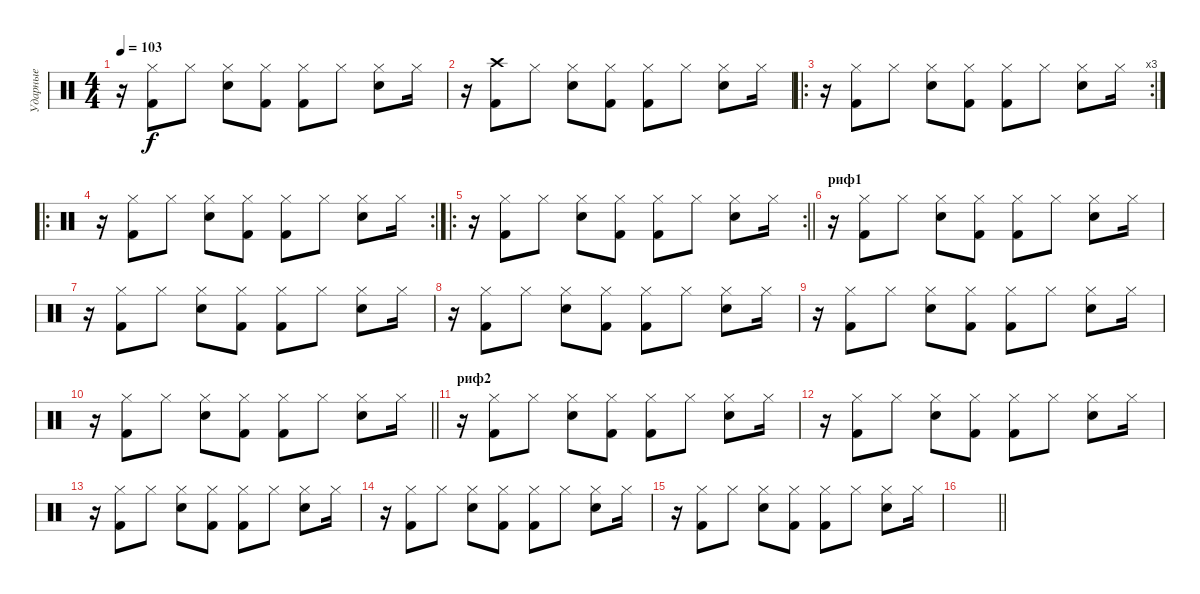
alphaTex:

\track ("Ударные" "Ударные") {instrument percussion}
\staff {score}
\articulation defaults
\ts (4 4)
\tempo 103
\clef neutral
\ks c
r.16{dy f} ("Hi-Hat (closed)" "Kick (hit) 2").8 "Hi-Hat (closed)".8 ("Hi-Hat (closed)" "Electric Snare (hit)").8 ("Hi-Hat (closed)" "Kick (hit) 2").8 ("Hi-Hat (closed)" "Kick (hit) 2").8 "Hi-Hat (closed)".8 ("Hi-Hat (closed)" "Electric Snare (hit)").8 "Hi-Hat (closed)".16 |
r.16 ("Kick (hit) 2" "Crash high (hit)").8 "Hi-Hat (closed)".8 ("Hi-Hat (closed)" "Electric Snare (hit)").8 ("Hi-Hat (closed)" "Kick (hit) 2").8 ("Hi-Hat (closed)" "Kick (hit) 2").8 "Hi-Hat (closed)".8 ("Hi-Hat (closed)" "Electric Snare (hit)").8 "Hi-Hat (closed)".16 |
\ro
\rc 3
r.16 ("Hi-Hat (closed)" "Kick (hit) 2").8 "Hi-Hat (closed)".8 ("Hi-Hat (closed)" "Electric Snare (hit)").8 ("Hi-Hat (closed)" "Kick (hit) 2").8 ("Hi-Hat (closed)" "Kick (hit) 2").8 "Hi-Hat (closed)".8 ("Hi-Hat (closed)" "Electric Snare (hit)").8 "Hi-Hat (closed)".16 |
\ro
\rc 2
r.16 ("Hi-Hat (closed)" "Kick (hit) 2").8 "Hi-Hat (closed)".8 ("Hi-Hat (closed)" "Electric Snare (hit)").8 ("Hi-Hat (closed)" "Kick (hit) 2").8 ("Hi-Hat (closed)" "Kick (hit) 2").8 "Hi-Hat (closed)".8 ("Hi-Hat (closed)" "Electric Snare (hit)").8 "Hi-Hat (closed)".16 |
\ro
\rc 2
\barLineRight lightlight
r.16 ("Hi-Hat (closed)" "Kick (hit) 2").8 "Hi-Hat (closed)".8 ("Hi-Hat (closed)" "Electric Snare (hit)").8 ("Hi-Hat (closed)" "Kick (hit) 2").8 ("Hi-Hat (closed)" "Kick (hit) 2").8 "Hi-Hat (closed)".8 ("Hi-Hat (closed)" "Electric Snare (hit)").8 "Hi-Hat (closed)".16 |
\section ("" "риф1")
r.16 ("Hi-Hat (closed)" "Kick (hit) 2").8 "Hi-Hat (closed)".8 ("Hi-Hat (closed)" "Electric Snare (hit)").8 ("Hi-Hat (closed)" "Kick (hit) 2").8 ("Hi-Hat (closed)" "Kick (hit) 2").8 "Hi-Hat (closed)".8 ("Hi-Hat (closed)" "Electric Snare (hit)").8 "Hi-Hat (closed)".16 |
r.16 ("Hi-Hat (closed)" "Kick (hit) 2").8 "Hi-Hat (closed)".8 ("Hi-Hat (closed)" "Electric Snare (hit)").8 ("Hi-Hat (closed)" "Kick (hit) 2").8 ("Hi-Hat (closed)" "Kick (hit) 2").8 "Hi-Hat (closed)".8 ("Hi-Hat (closed)" "Electric Snare (hit)").8 "Hi-Hat (closed)".16 |
r.16 ("Hi-Hat (closed)" "Kick (hit) 2").8 "Hi-Hat (closed)".8 ("Hi-Hat (closed)" "Electric Snare (hit)").8 ("Hi-Hat (closed)" "Kick (hit) 2").8 ("Hi-Hat (closed)" "Kick (hit) 2").8 "Hi-Hat (closed)".8 ("Hi-Hat (closed)" "Electric Snare (hit)").8 "Hi-Hat (closed)".16 |
r.16 ("Hi-Hat (closed)" "Kick (hit) 2").8 "Hi-Hat (closed)".8 ("Hi-Hat (closed)" "Electric Snare (hit)").8 ("Hi-Hat (closed)" "Kick (hit) 2").8 ("Hi-Hat (closed)" "Kick (hit) 2").8 "Hi-Hat (closed)".8 ("Hi-Hat (closed)" "Electric Snare (hit)").8 "Hi-Hat (closed)".16 |
\barLineRight lightlight
r.16 ("Hi-Hat (closed)" "Kick (hit) 2").8 "Hi-Hat (closed)".8 ("Hi-Hat (closed)" "Electric Snare (hit)").8 ("Hi-Hat (closed)" "Kick (hit) 2").8 ("Hi-Hat (closed)" "Kick (hit) 2").8 "Hi-Hat (closed)".8 ("Hi-Hat (closed)" "Electric Snare (hit)").8 "Hi-Hat (closed)".16 |
\section ("" "риф2")
r.16 ("Hi-Hat (closed)" "Kick (hit) 2").8 "Hi-Hat (closed)".8 ("Hi-Hat (closed)" "Electric Snare (hit)").8 ("Hi-Hat (closed)" "Kick (hit) 2").8 ("Hi-Hat (closed)" "Kick (hit) 2").8 "Hi-Hat (closed)".8 ("Hi-Hat (closed)" "Electric Snare (hit)").8 "Hi-Hat (closed)".16 |
r.16 ("Hi-Hat (closed)" "Kick (hit) 2").8 "Hi-Hat (closed)".8 ("Hi-Hat (closed)" "Electric Snare (hit)").8 ("Hi-Hat (closed)" "Kick (hit) 2").8 ("Hi-Hat (closed)" "Kick (hit) 2").8 "Hi-Hat (closed)".8 ("Hi-Hat (closed)" "Electric Snare (hit)").8 "Hi-Hat (closed)".16 |
r.16 ("Hi-Hat (closed)" "Kick (hit) 2").8 "Hi-Hat (closed)".8 ("Hi-Hat (closed)" "Electric Snare (hit)").8 ("Hi-Hat (closed)" "Kick (hit) 2").8 ("Hi-Hat (closed)" "Kick (hit) 2").8 "Hi-Hat (closed)".8 ("Hi-Hat (closed)" "Electric Snare (hit)").8 "Hi-Hat (closed)".16 |
r.16 ("Hi-Hat (closed)" "Kick (hit) 2").8 "Hi-Hat (closed)".8 ("Hi-Hat (closed)" "Electric Snare (hit)").8 ("Hi-Hat (closed)" "Kick (hit) 2").8 ("Hi-Hat (closed)" "Kick (hit) 2").8 "Hi-Hat (closed)".8 ("Hi-Hat (closed)" "Electric Snare (hit)").8 "Hi-Hat (closed)".16 |
r.16 ("Hi-Hat (closed)" "Kick (hit) 2").8 "Hi-Hat (closed)".8 ("Hi-Hat (closed)" "Electric Snare (hit)").8 ("Hi-Hat (closed)" "Kick (hit) 2").8 ("Hi-Hat (closed)" "Kick (hit) 2").8 "Hi-Hat (closed)".8 ("Hi-Hat (closed)" "Electric Snare (hit)").8 "Hi-Hat (closed)".16 |
\barLineRight lightlight
